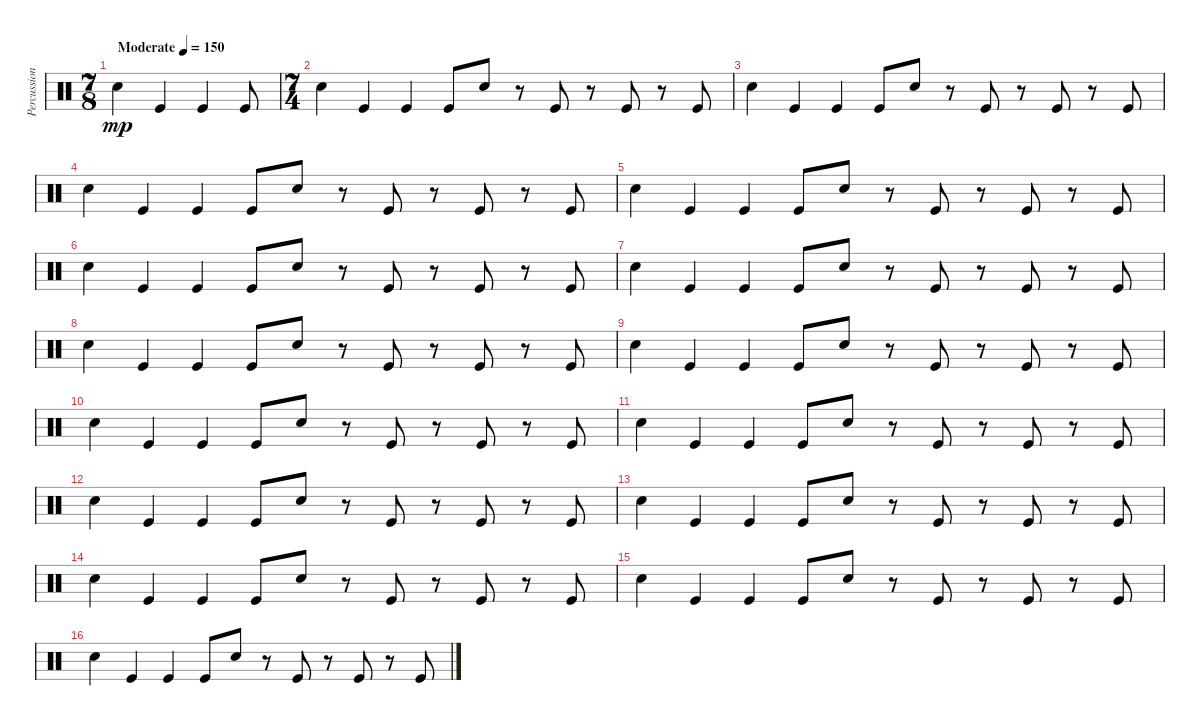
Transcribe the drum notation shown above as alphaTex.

\track ("Percussion" "Percussion") {instrument percussion}
\staff {score}
\articulation defaults
\ts (7 8)
\tempo (150 "Moderate")
\clef neutral
\ks c "Electric Snare (hit)".4{dy mp} "Kick (hit)".4 "Kick (hit)".4 "Kick (hit)".8
|
\ts (7 4)
"Electric Snare (hit)".4 "Kick (hit)".4 "Kick (hit)".4 "Kick (hit)".8 "Electric Snare (hit)".8 r.8 "Kick (hit)".8 r.8 "Kick (hit)".8 r.8 "Kick (hit)".8 |
"Electric Snare (hit)".4 "Kick (hit)".4 "Kick (hit)".4 "Kick (hit)".8 "Electric Snare (hit)".8 r.8 "Kick (hit)".8 r.8 "Kick (hit)".8 r.8 "Kick (hit)".8 |
"Electric Snare (hit)".4 "Kick (hit)".4 "Kick (hit)".4 "Kick (hit)".8 "Electric Snare (hit)".8 r.8 "Kick (hit)".8 r.8 "Kick (hit)".8 r.8 "Kick (hit)".8 |
"Electric Snare (hit)".4 "Kick (hit)".4 "Kick (hit)".4 "Kick (hit)".8 "Electric Snare (hit)".8 r.8 "Kick (hit)".8 r.8 "Kick (hit)".8 r.8 "Kick (hit)".8 |
"Electric Snare (hit)".4 "Kick (hit)".4 "Kick (hit)".4 "Kick (hit)".8 "Electric Snare (hit)".8 r.8 "Kick (hit)".8 r.8 "Kick (hit)".8 r.8 "Kick (hit)".8 |
"Electric Snare (hit)".4 "Kick (hit)".4 "Kick (hit)".4 "Kick (hit)".8 "Electric Snare (hit)".8 r.8 "Kick (hit)".8 r.8 "Kick (hit)".8 r.8 "Kick (hit)".8 |
"Electric Snare (hit)".4 "Kick (hit)".4 "Kick (hit)".4 "Kick (hit)".8 "Electric Snare (hit)".8 r.8 "Kick (hit)".8 r.8 "Kick (hit)".8 r.8 "Kick (hit)".8 |
"Electric Snare (hit)".4 "Kick (hit)".4 "Kick (hit)".4 "Kick (hit)".8 "Electric Snare (hit)".8 r.8 "Kick (hit)".8 r.8 "Kick (hit)".8 r.8 "Kick (hit)".8 |
"Electric Snare (hit)".4 "Kick (hit)".4 "Kick (hit)".4 "Kick (hit)".8 "Electric Snare (hit)".8 r.8 "Kick (hit)".8 r.8 "Kick (hit)".8 r.8 "Kick (hit)".8 |
"Electric Snare (hit)".4 "Kick (hit)".4 "Kick (hit)".4 "Kick (hit)".8 "Electric Snare (hit)".8 r.8 "Kick (hit)".8 r.8 "Kick (hit)".8 r.8 "Kick (hit)".8 |
"Electric Snare (hit)".4 "Kick (hit)".4 "Kick (hit)".4 "Kick (hit)".8 "Electric Snare (hit)".8 r.8 "Kick (hit)".8 r.8 "Kick (hit)".8 r.8 "Kick (hit)".8 |
"Electric Snare (hit)".4 "Kick (hit)".4 "Kick (hit)".4 "Kick (hit)".8 "Electric Snare (hit)".8 r.8 "Kick (hit)".8 r.8 "Kick (hit)".8 r.8 "Kick (hit)".8 |
"Electric Snare (hit)".4 "Kick (hit)".4 "Kick (hit)".4 "Kick (hit)".8 "Electric Snare (hit)".8 r.8 "Kick (hit)".8 r.8 "Kick (hit)".8 r.8 "Kick (hit)".8 |
"Electric Snare (hit)".4 "Kick (hit)".4 "Kick (hit)".4 "Kick (hit)".8 "Electric Snare (hit)".8 r.8 "Kick (hit)".8 r.8 "Kick (hit)".8 r.8 "Kick (hit)".8 |
"Electric Snare (hit)".4 "Kick (hit)".4 "Kick (hit)".4 "Kick (hit)".8 "Electric Snare (hit)".8 r.8 "Kick (hit)".8 r.8 "Kick (hit)".8 r.8 "Kick (hit)".8
